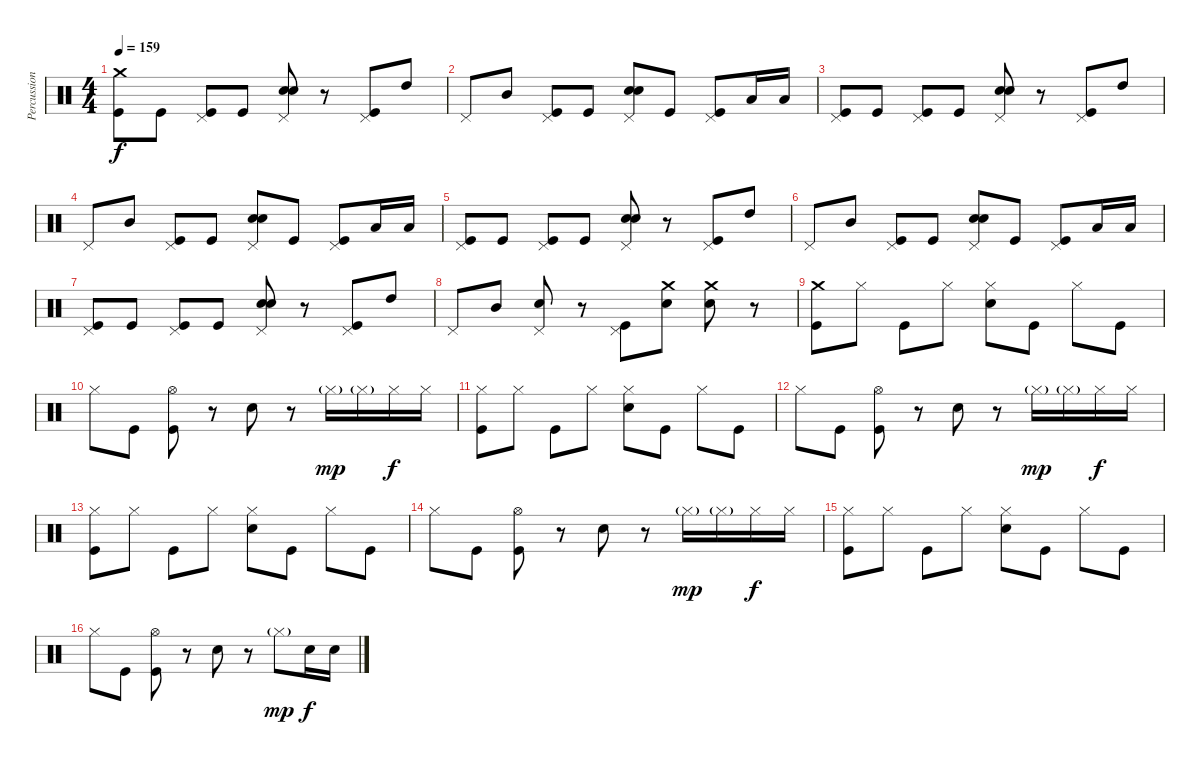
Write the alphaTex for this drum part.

\track ("Percussion" "Percussion") {instrument percussion}
\staff {score}
\articulation defaults
\ts (4 4)
\tempo 159
\clef neutral
\ks c
("Crash medium (hit)" "Kick (hit)").8{dy f} "Kick (hit)".8 ("Pedal Hi-Hat (hit)" "Kick (hit)").8 "Kick (hit)".8 ("Pedal Hi-Hat (hit)" "Snare (hit) 2" "Snare (hit) 2").8 r.8 ("Pedal Hi-Hat (hit)" "Kick (hit)").8 "High Tom (hit)".8 |
"Pedal Hi-Hat (hit)".8 "Mid Tom (hit)".8 ("Pedal Hi-Hat (hit)" "Kick (hit)").8 "Kick (hit)".8 ("Pedal Hi-Hat (hit)" "Snare (hit) 2" "Snare (hit) 2").8 "Kick (hit)".8 ("Pedal Hi-Hat (hit)" "Kick (hit)").8 "Low Tom (hit)".16 "Low Tom (hit)".16 |
("Pedal Hi-Hat (hit)" "Kick (hit)").8 "Kick (hit)".8 ("Pedal Hi-Hat (hit)" "Kick (hit)").8 "Kick (hit)".8 ("Pedal Hi-Hat (hit)" "Snare (hit) 2" "Snare (hit) 2").8 r.8 ("Pedal Hi-Hat (hit)" "Kick (hit)").8 "High Tom (hit)".8 |
"Pedal Hi-Hat (hit)".8 "Mid Tom (hit)".8 ("Pedal Hi-Hat (hit)" "Kick (hit)").8 "Kick (hit)".8 ("Pedal Hi-Hat (hit)" "Snare (hit) 2" "Snare (hit) 2").8 "Kick (hit)".8 ("Pedal Hi-Hat (hit)" "Kick (hit)").8 "Low Tom (hit)".16 "Low Tom (hit)".16 |
("Pedal Hi-Hat (hit)" "Kick (hit)").8 "Kick (hit)".8 ("Pedal Hi-Hat (hit)" "Kick (hit)").8 "Kick (hit)".8 ("Pedal Hi-Hat (hit)" "Snare (hit) 2" "Snare (hit) 2").8 r.8 ("Pedal Hi-Hat (hit)" "Kick (hit)").8 "High Tom (hit)".8 |
"Pedal Hi-Hat (hit)".8 "Mid Tom (hit)".8 ("Pedal Hi-Hat (hit)" "Kick (hit)").8 "Kick (hit)".8 ("Pedal Hi-Hat (hit)" "Snare (hit) 2" "Snare (hit) 2").8 "Kick (hit)".8 ("Pedal Hi-Hat (hit)" "Kick (hit)").8 "Low Tom (hit)".16 "Low Tom (hit)".16 |
("Pedal Hi-Hat (hit)" "Kick (hit)").8 "Kick (hit)".8 ("Pedal Hi-Hat (hit)" "Kick (hit)").8 "Kick (hit)".8 ("Pedal Hi-Hat (hit)" "Snare (hit) 2" "Snare (hit) 2").8 r.8 ("Pedal Hi-Hat (hit)" "Kick (hit)").8 "High Tom (hit)".8 |
"Pedal Hi-Hat (hit)".8 "Mid Tom (hit)".8 ("Pedal Hi-Hat (hit)" "Snare (hit) 2").8 r.8 ("Pedal Hi-Hat (hit)" "Kick (hit)").8 ("Crash medium (hit)" "Snare (hit) 2").8 ("Crash medium (hit)" "Snare (hit) 2").8 r.8 |
("Crash medium (hit)" "Kick (hit)").8 "Hi-Hat (closed)".8 "Kick (hit)".8 "Hi-Hat (closed)".8 ("Hi-Hat (closed)" "Snare (hit) 2").8 "Kick (hit)".8 "Hi-Hat (closed)".8 "Kick (hit)".8 |
"Hi-Hat (closed)".8 "Kick (hit)".8 ("Hi-Hat (open)" "Kick (hit)").8 r.8 "Snare (hit) 2".8 r.8 "Hi-Hat (closed)"{g}.16{dy mp} "Hi-Hat (closed)"{g}.16 "Hi-Hat (closed)".16{dy f} "Hi-Hat (closed)".16 |
("Hi-Hat (closed)" "Kick (hit)").8 "Hi-Hat (closed)".8 "Kick (hit)".8 "Hi-Hat (closed)".8 ("Hi-Hat (closed)" "Snare (hit) 2").8 "Kick (hit)".8 "Hi-Hat (closed)".8 "Kick (hit)".8 |
"Hi-Hat (closed)".8 "Kick (hit)".8 ("Hi-Hat (open)" "Kick (hit)").8 r.8 "Snare (hit) 2".8 r.8 "Hi-Hat (closed)"{g}.16{dy mp} "Hi-Hat (closed)"{g}.16 "Hi-Hat (closed)".16{dy f} "Hi-Hat (closed)".16 |
("Hi-Hat (closed)" "Kick (hit)").8 "Hi-Hat (closed)".8 "Kick (hit)".8 "Hi-Hat (closed)".8 ("Hi-Hat (closed)" "Snare (hit) 2").8 "Kick (hit)".8 "Hi-Hat (closed)".8 "Kick (hit)".8 |
"Hi-Hat (closed)".8 "Kick (hit)".8 ("Hi-Hat (open)" "Kick (hit)").8 r.8 "Snare (hit) 2".8 r.8 "Hi-Hat (closed)"{g}.16{dy mp} "Hi-Hat (closed)"{g}.16 "Hi-Hat (closed)".16{dy f} "Hi-Hat (closed)".16 |
("Hi-Hat (closed)" "Kick (hit)").8 "Hi-Hat (closed)".8 "Kick (hit)".8 "Hi-Hat (closed)".8 ("Hi-Hat (closed)" "Snare (hit) 2").8 "Kick (hit)".8 "Hi-Hat (closed)".8 "Kick (hit)".8 |
"Hi-Hat (closed)".8 "Kick (hit)".8 ("Hi-Hat (open)" "Kick (hit)").8 r.8 "Snare (hit) 2".8 r.8 "Hi-Hat (closed)"{g}.8{dy mp} "Snare (hit) 2".16{dy f} "Snare (hit) 2".16
